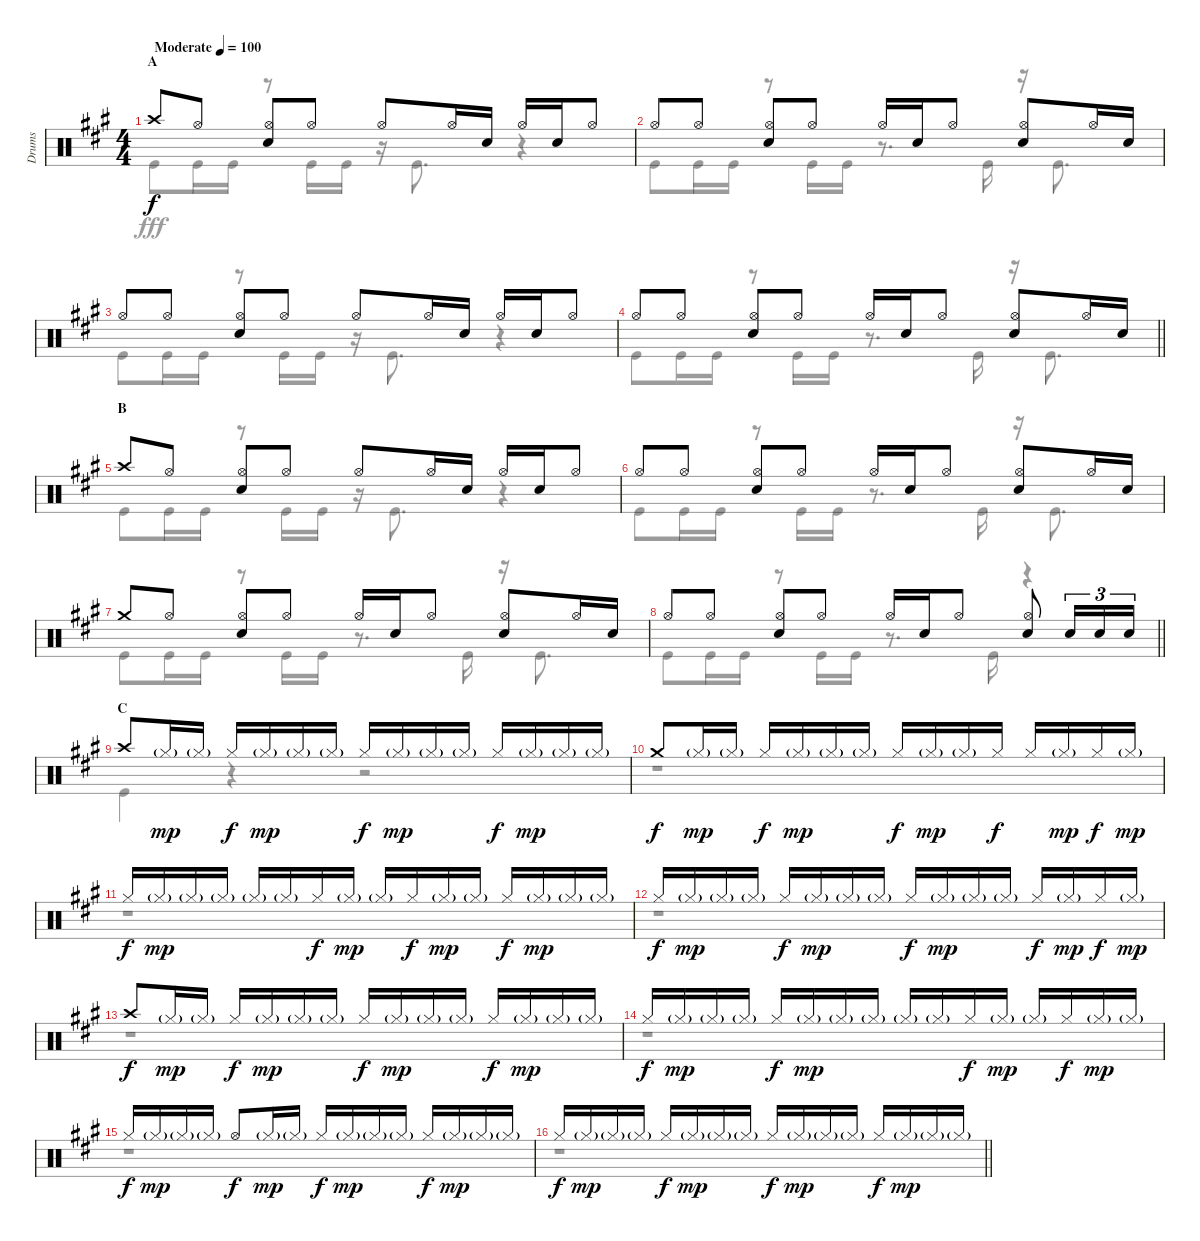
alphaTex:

\track ("Drums" "Drums") {instrument percussion}
\staff {score}
\articulation defaults
\voice
\ts (4 4)
\section ("" "A")
\tempo (100 "Moderate")
\clef neutral
\ks a "Crash high (hit)".8{dy f} "Hi-Hat (open)".8
("Hi-Hat (open)" "Snare (hit) 2").8 "Hi-Hat (open)".8 "Hi-Hat (open)".8 "Hi-Hat (open)".16 "Snare (hit) 2".16 "Hi-Hat (open)".16 "Snare (hit) 2".16 "Hi-Hat (open)".8 |
"Hi-Hat (open)".8 "Hi-Hat (open)".8 ("Hi-Hat (open)" "Snare (hit) 2").8 "Hi-Hat (open)".8 "Hi-Hat (open)".16 "Snare (hit) 2".16 "Hi-Hat (open)".8 ("Hi-Hat (open)" "Snare (hit) 2").8 "Hi-Hat (open)".16 "Snare (hit) 2".16 |
"Hi-Hat (open)".8 "Hi-Hat (open)".8 ("Hi-Hat (open)" "Snare (hit) 2").8 "Hi-Hat (open)".8 "Hi-Hat (open)".8 "Hi-Hat (open)".16 "Snare (hit) 2".16 "Hi-Hat (open)".16 "Snare (hit) 2".16 "Hi-Hat (open)".8 |
\barLineRight lightlight "Hi-Hat (open)".8 "Hi-Hat (open)".8
("Hi-Hat (open)" "Snare (hit) 2").8 "Hi-Hat (open)".8 "Hi-Hat (open)".16 "Snare (hit) 2".16 "Hi-Hat (open)".8 ("Hi-Hat (open)" "Snare (hit) 2").8 "Hi-Hat (open)".16 "Snare (hit) 2".16 |
\section ("" "B")
"Crash high (hit)".8 "Hi-Hat (open)".8 ("Hi-Hat (open)" "Snare (hit) 2").8 "Hi-Hat (open)".8 "Hi-Hat (open)".8 "Hi-Hat (open)".16 "Snare (hit) 2".16 "Hi-Hat (open)".16 "Snare (hit) 2".16 "Hi-Hat (open)".8 |
"Hi-Hat (open)".8 "Hi-Hat (open)".8 ("Hi-Hat (open)" "Snare (hit) 2").8 "Hi-Hat (open)".8 "Hi-Hat (open)".16 "Snare (hit) 2".16 "Hi-Hat (open)".8 ("Hi-Hat (open)" "Snare (hit) 2").8 "Hi-Hat (open)".16 "Snare (hit) 2".16 |
"Crash medium (hit)".8 "Hi-Hat (open)".8 ("Hi-Hat (open)" "Snare (hit) 2").8 "Hi-Hat (open)".8 "Hi-Hat (open)".16 "Snare (hit) 2".16 "Hi-Hat (open)".8 ("Hi-Hat (open)" "Snare (hit) 2").8 "Hi-Hat (open)".16 "Snare (hit) 2".16 |
\barLineRight lightlight "Hi-Hat (open)".8 "Hi-Hat (open)".8
("Hi-Hat (open)" "Snare (hit) 2").8 "Hi-Hat (open)".8 "Hi-Hat (open)".16 "Snare (hit) 2".16 "Hi-Hat (open)".8 ("Hi-Hat (open)" "Snare (hit) 2").8 "Snare (hit) 2".16{tu (3 2)} "Snare (hit) 2".16{tu (3 2)} "Snare (hit) 2".16{tu (3 2)} |
\section ("" "C")
"Crash high (hit)".8 "Hi-Hat (closed)"{g}.16{dy mp} "Hi-Hat (closed)"{g}.16 "Hi-Hat (closed)".16{dy f} "Hi-Hat (closed)"{g}.16{dy mp} "Hi-Hat (closed)"{g}.16 "Hi-Hat (closed)"{g}.16 "Hi-Hat (closed)".16{dy f} "Hi-Hat (closed)"{g}.16{dy mp} "Hi-Hat (closed)"{g}.16 "Hi-Hat (closed)"{g}.16 "Hi-Hat (closed)".16{dy f} "Hi-Hat (closed)"{g}.16{dy mp} "Hi-Hat (closed)"{g}.16 "Hi-Hat (closed)"{g}.16 |
"Crash medium (hit)".8{dy f} "Hi-Hat (closed)"{g}.16{dy mp} "Hi-Hat (closed)"{g}.16 "Hi-Hat (closed)".16{dy f} "Hi-Hat (closed)"{g}.16{dy mp} "Hi-Hat (closed)"{g}.16 "Hi-Hat (closed)"{g}.16 "Hi-Hat (closed)".16{dy f} "Hi-Hat (closed)"{g}.16{dy mp} "Hi-Hat (closed)"{g}.16 "Hi-Hat (closed)".16{dy f} "Hi-Hat (closed)".16 "Hi-Hat (closed)"{g}.16{dy mp} "Hi-Hat (closed)".16{dy f} "Hi-Hat (closed)"{g}.16{dy mp} |
"Hi-Hat (closed)".16{dy f} "Hi-Hat (closed)"{g}.16{dy mp} "Hi-Hat (closed)"{g}.16 "Hi-Hat (closed)"{g}.16 "Hi-Hat (closed)"{g}.16 "Hi-Hat (closed)"{g}.16 "Hi-Hat (closed)".16{dy f} "Hi-Hat (closed)"{g}.16{dy mp} "Hi-Hat (closed)"{g}.16 "Hi-Hat (closed)".16{dy f} "Hi-Hat (closed)"{g}.16{dy mp} "Hi-Hat (closed)"{g}.16 "Hi-Hat (closed)".16{dy f} "Hi-Hat (closed)"{g}.16{dy mp} "Hi-Hat (closed)"{g}.16 "Hi-Hat (closed)"{g}.16 |
"Hi-Hat (closed)".16{dy f} "Hi-Hat (closed)"{g}.16{dy mp} "Hi-Hat (closed)"{g}.16 "Hi-Hat (closed)"{g}.16 "Hi-Hat (closed)".16{dy f} "Hi-Hat (closed)"{g}.16{dy mp} "Hi-Hat (closed)"{g}.16 "Hi-Hat (closed)"{g}.16 "Hi-Hat (closed)".16{dy f} "Hi-Hat (closed)"{g}.16{dy mp} "Hi-Hat (closed)"{g}.16 "Hi-Hat (closed)"{g}.16 "Hi-Hat (closed)".16{dy f} "Hi-Hat (closed)"{g}.16{dy mp} "Hi-Hat (closed)".16{dy f} "Hi-Hat (closed)"{g}.16{dy mp} |
"Crash high (hit)".8{dy f} "Hi-Hat (closed)"{g}.16{dy mp} "Hi-Hat (closed)"{g}.16 "Hi-Hat (closed)".16{dy f} "Hi-Hat (closed)"{g}.16{dy mp} "Hi-Hat (closed)"{g}.16 "Hi-Hat (closed)"{g}.16 "Hi-Hat (closed)".16{dy f} "Hi-Hat (closed)"{g}.16{dy mp} "Hi-Hat (closed)"{g}.16 "Hi-Hat (closed)"{g}.16 "Hi-Hat (closed)".16{dy f} "Hi-Hat (closed)"{g}.16{dy mp} "Hi-Hat (closed)"{g}.16 "Hi-Hat (closed)"{g}.16 |
"Hi-Hat (closed)".16{dy f} "Hi-Hat (closed)"{g}.16{dy mp} "Hi-Hat (closed)"{g}.16 "Hi-Hat (closed)"{g}.16 "Hi-Hat (closed)".16{dy f} "Hi-Hat (closed)"{g}.16{dy mp} "Hi-Hat (closed)"{g}.16 "Hi-Hat (closed)"{g}.16 "Hi-Hat (closed)"{g}.16 "Hi-Hat (closed)"{g}.16 "Hi-Hat (closed)".16{dy f} "Hi-Hat (closed)"{g}.16{dy mp} "Hi-Hat (closed)"{g}.16 "Hi-Hat (closed)".16{dy f} "Hi-Hat (closed)"{g}.16{dy mp} "Hi-Hat (closed)"{g}.16 |
"Hi-Hat (closed)".16{dy f} "Hi-Hat (closed)"{g}.16{dy mp} "Hi-Hat (closed)"{g}.16 "Hi-Hat (closed)"{g}.16 "Hi-Hat (open)".8{dy f} "Hi-Hat (closed)"{g}.16{dy mp} "Hi-Hat (closed)"{g}.16 "Hi-Hat (closed)".16{dy f} "Hi-Hat (closed)"{g}.16{dy mp} "Hi-Hat (closed)"{g}.16 "Hi-Hat (closed)"{g}.16 "Hi-Hat (closed)".16{dy f} "Hi-Hat (closed)"{g}.16{dy mp} "Hi-Hat (closed)"{g}.16 "Hi-Hat (closed)"{g}.16 |
\barLineRight lightlight "Hi-Hat (closed)".16{dy f} "Hi-Hat (closed)"{g}.16{dy mp} "Hi-Hat (closed)"{g}.16 "Hi-Hat (closed)"{g}.16 "Hi-Hat (closed)".16{dy f} "Hi-Hat (closed)"{g}.16{dy mp} "Hi-Hat (closed)"{g}.16 "Hi-Hat (closed)"{g}.16 "Hi-Hat (closed)".16{dy f} "Hi-Hat (closed)"{g}.16{dy mp} "Hi-Hat (closed)"{g}.16 "Hi-Hat (closed)"{g}.16 "Hi-Hat (closed)".16{dy f} "Hi-Hat (closed)"{g}.16{dy mp} "Hi-Hat (closed)"{g}.16 "Hi-Hat (closed)"{g}.16
\voice
\clef neutral
\ottava regular
\simile none
\ks a "Kick (hit)".8{dy fff} "Kick (hit)".16 "Kick (hit)".16
r.8 "Kick (hit)".16 "Kick (hit)".16 r.16 "Kick (hit)".8{d} r.4 |
"Kick (hit)".8 "Kick (hit)".16 "Kick (hit)".16 r.8 "Kick (hit)".16 "Kick (hit)".16 r.8{d} "Kick (hit)".16 r.16 "Kick (hit)".8{d} |
"Kick (hit)".8 "Kick (hit)".16 "Kick (hit)".16 r.8 "Kick (hit)".16 "Kick (hit)".16 r.16 "Kick (hit)".8{d} r.4 |
\barLineRight lightlight "Kick (hit)".8 "Kick (hit)".16 "Kick (hit)".16
r.8 "Kick (hit)".16 "Kick (hit)".16 r.8{d} "Kick (hit)".16 r.16 "Kick (hit)".8{d} |
"Kick (hit)".8 "Kick (hit)".16 "Kick (hit)".16 r.8 "Kick (hit)".16 "Kick (hit)".16 r.16 "Kick (hit)".8{d} r.4 |
"Kick (hit)".8 "Kick (hit)".16 "Kick (hit)".16 r.8 "Kick (hit)".16 "Kick (hit)".16 r.8{d} "Kick (hit)".16 r.16 "Kick (hit)".8{d} |
"Kick (hit)".8 "Kick (hit)".16 "Kick (hit)".16 r.8 "Kick (hit)".16 "Kick (hit)".16 r.8{d} "Kick (hit)".16 r.16 "Kick (hit)".8{d} |
\barLineRight lightlight "Kick (hit)".8 "Kick (hit)".16 "Kick (hit)".16
r.8 "Kick (hit)".16 "Kick (hit)".16 r.8{d} "Kick (hit)".16 r.4 |
"Kick (hit)".4 r.4 r.2 |
r.1 |
r.1 |
r.1 |
r.1 |
r.1 |
r.1 |
\barLineRight lightlight
r.1
